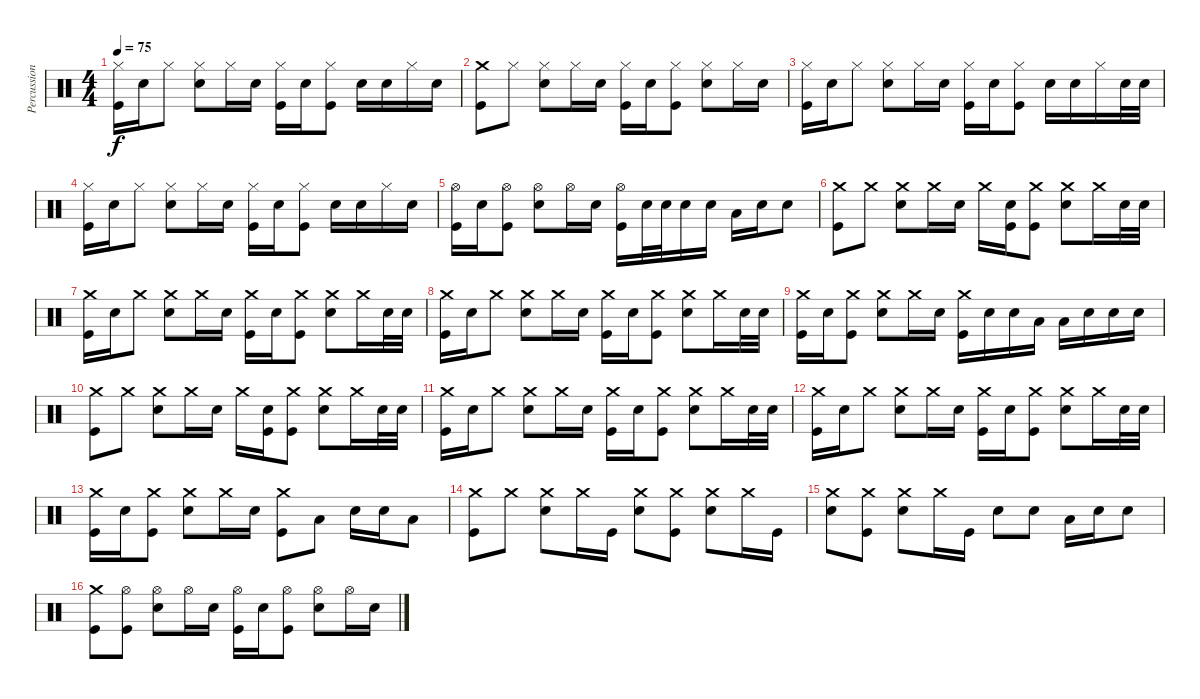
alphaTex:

\track ("Percussion" "Percussion") {instrument percussion}
\staff {score}
\articulation defaults
\ts (4 4)
\tempo 75
\clef neutral
\ks c
("Hi-Hat (closed)" "Kick (hit)").16{dy f} "Snare (hit) 2".16 "Hi-Hat (closed)".8 ("Hi-Hat (closed)" "Snare (hit) 2").8 "Hi-Hat (closed)".16 "Snare (hit) 2".16 ("Hi-Hat (closed)" "Kick (hit)").16 "Snare (hit) 2".16 ("Hi-Hat (closed)" "Kick (hit)").8 "Snare (hit) 2".16 "Snare (hit) 2".16 "Hi-Hat (closed)".16 "Snare (hit) 2".16 |
("Crash medium (hit)" "Kick (hit)").8 "Hi-Hat (closed)".8 ("Hi-Hat (closed)" "Snare (hit) 2").8 "Hi-Hat (closed)".16 "Snare (hit) 2".16 ("Hi-Hat (closed)" "Kick (hit)").16 "Snare (hit) 2".16 ("Hi-Hat (closed)" "Kick (hit)").8 ("Hi-Hat (closed)" "Snare (hit) 2").8 "Hi-Hat (closed)".16 "Snare (hit) 2".16 |
("Hi-Hat (closed)" "Kick (hit)").16 "Snare (hit) 2".16 "Hi-Hat (closed)".8 ("Hi-Hat (closed)" "Snare (hit) 2").8 "Hi-Hat (closed)".16 "Snare (hit) 2".16 ("Hi-Hat (closed)" "Kick (hit)").16 "Snare (hit) 2".16 ("Hi-Hat (closed)" "Kick (hit)").8 "Snare (hit) 2".16 "Snare (hit) 2".16 "Hi-Hat (closed)".16 "Snare (hit) 2".32 "Snare (hit) 2".32 |
("Hi-Hat (closed)" "Kick (hit)").16 "Snare (hit) 2".16 "Hi-Hat (closed)".8 ("Hi-Hat (closed)" "Snare (hit) 2").8 "Hi-Hat (closed)".16 "Snare (hit) 2".16 ("Hi-Hat (closed)" "Kick (hit)").16 "Snare (hit) 2".16 ("Hi-Hat (closed)" "Kick (hit)").8 "Snare (hit) 2".16 "Snare (hit) 2".16 "Hi-Hat (closed)".16 "Snare (hit) 2".16 |
("Hi-Hat (open)" "Kick (hit)").16 "Snare (hit) 2".16 ("Hi-Hat (open)" "Kick (hit)").8 ("Hi-Hat (open)" "Snare (hit) 2").8 "Hi-Hat (open)".16 "Snare (hit) 2".16 ("Hi-Hat (open)" "Kick (hit)").16 "Snare (hit) 2".32 "Snare (hit) 2".32 "Snare (hit) 2".16 "Snare (hit) 2".16 "Low Tom (hit)".16 "Snare (hit) 2".16 "Snare (hit) 2".8 |
("Crash medium (hit)" "Kick (hit)").8 "Crash medium (hit)".8 ("Crash medium (hit)" "Snare (hit) 2").8 "Crash medium (hit)".16 "Snare (hit) 2".16 "Crash medium (hit)".16 ("Snare (hit) 2" "Kick (hit)").16 ("Crash medium (hit)" "Kick (hit)").8 ("Crash medium (hit)" "Snare (hit) 2").8 "Crash medium (hit)".16 "Snare (hit) 2".32 "Snare (hit) 2".32 |
("Crash medium (hit)" "Kick (hit)").16 "Snare (hit) 2".16 "Crash medium (hit)".8 ("Crash medium (hit)" "Snare (hit) 2").8 "Crash medium (hit)".16 "Snare (hit) 2".16 ("Crash medium (hit)" "Kick (hit)").16 "Snare (hit) 2".16 ("Crash medium (hit)" "Kick (hit)").8 ("Crash medium (hit)" "Snare (hit) 2").8 "Crash medium (hit)".16 "Snare (hit) 2".32 "Snare (hit) 2".32 |
("Crash medium (hit)" "Kick (hit)").16 "Snare (hit) 2".16 "Crash medium (hit)".8 ("Crash medium (hit)" "Snare (hit) 2").8 "Crash medium (hit)".16 "Snare (hit) 2".16 ("Crash medium (hit)" "Kick (hit)").16 "Snare (hit) 2".16 ("Crash medium (hit)" "Kick (hit)").8 ("Crash medium (hit)" "Snare (hit) 2").8 "Crash medium (hit)".16 "Snare (hit) 2".32 "Snare (hit) 2".32 |
("Crash medium (hit)" "Kick (hit)").16 "Snare (hit) 2".16 ("Crash medium (hit)" "Kick (hit)").8 ("Crash medium (hit)" "Snare (hit) 2").8 "Crash medium (hit)".16 "Snare (hit) 2".16 ("Crash medium (hit)" "Kick (hit)").16 "Snare (hit) 2".16 "Snare (hit) 2".16 "Low Tom (hit)".16 "Low Tom (hit)".16 "Snare (hit) 2".16 "Snare (hit) 2".16 "Snare (hit) 2".16 |
("Crash medium (hit)" "Kick (hit)").8 "Crash medium (hit)".8 ("Crash medium (hit)" "Snare (hit) 2").8 "Crash medium (hit)".16 "Snare (hit) 2".16 "Crash medium (hit)".16 ("Snare (hit) 2" "Kick (hit)").16 ("Crash medium (hit)" "Kick (hit)").8 ("Crash medium (hit)" "Snare (hit) 2").8 "Crash medium (hit)".16 "Snare (hit) 2".32 "Snare (hit) 2".32 |
("Crash medium (hit)" "Kick (hit)").16 "Snare (hit) 2".16 "Crash medium (hit)".8 ("Crash medium (hit)" "Snare (hit) 2").8 "Crash medium (hit)".16 "Snare (hit) 2".16 ("Crash medium (hit)" "Kick (hit)").16 "Snare (hit) 2".16 ("Crash medium (hit)" "Kick (hit)").8 ("Crash medium (hit)" "Snare (hit) 2").8 "Crash medium (hit)".16 "Snare (hit) 2".32 "Snare (hit) 2".32 |
("Crash medium (hit)" "Kick (hit)").16 "Snare (hit) 2".16 "Crash medium (hit)".8 ("Crash medium (hit)" "Snare (hit) 2").8 "Crash medium (hit)".16 "Snare (hit) 2".16 ("Crash medium (hit)" "Kick (hit)").16 "Snare (hit) 2".16 ("Crash medium (hit)" "Kick (hit)").8 ("Crash medium (hit)" "Snare (hit) 2").8 "Crash medium (hit)".16 "Snare (hit) 2".32 "Snare (hit) 2".32 |
("Crash medium (hit)" "Kick (hit)").16 "Snare (hit) 2".16 ("Crash medium (hit)" "Kick (hit)").8 ("Crash medium (hit)" "Snare (hit) 2").8 "Crash medium (hit)".16 "Snare (hit) 2".16 ("Crash medium (hit)" "Kick (hit)").8 "Low Tom (hit)".8 "Snare (hit) 2".16 "Snare (hit) 2".16 "Low Tom (hit)".8 |
("Crash medium (hit)" "Kick (hit)").8 "Crash medium (hit)".8 ("Crash medium (hit)" "Snare (hit) 2").8 "Crash medium (hit)".16 "Kick (hit)".16 ("Crash medium (hit)" "Snare (hit) 2").8 ("Crash medium (hit)" "Kick (hit)").8 ("Crash medium (hit)" "Snare (hit) 2").8 "Crash medium (hit)".16 "Kick (hit)".16 |
("Crash medium (hit)" "Snare (hit) 2").8 ("Crash medium (hit)" "Kick (hit)").8 ("Crash medium (hit)" "Snare (hit) 2").8 "Crash medium (hit)".16 "Kick (hit)".16 "Snare (hit) 2".8 "Snare (hit) 2".8 "Low Tom (hit)".16 "Snare (hit) 2".16 "Snare (hit) 2".8 |
("Crash medium (hit)" "Kick (hit)").8 ("Hi-Hat (open)" "Kick (hit)").8 ("Hi-Hat (open)" "Snare (hit) 2").8 "Hi-Hat (open)".16 "Snare (hit) 2".16 ("Hi-Hat (open)" "Kick (hit)").16 "Snare (hit) 2".16 ("Hi-Hat (open)" "Kick (hit)").8 ("Hi-Hat (open)" "Snare (hit) 2").8 "Hi-Hat (open)".16 "Snare (hit) 2".16
